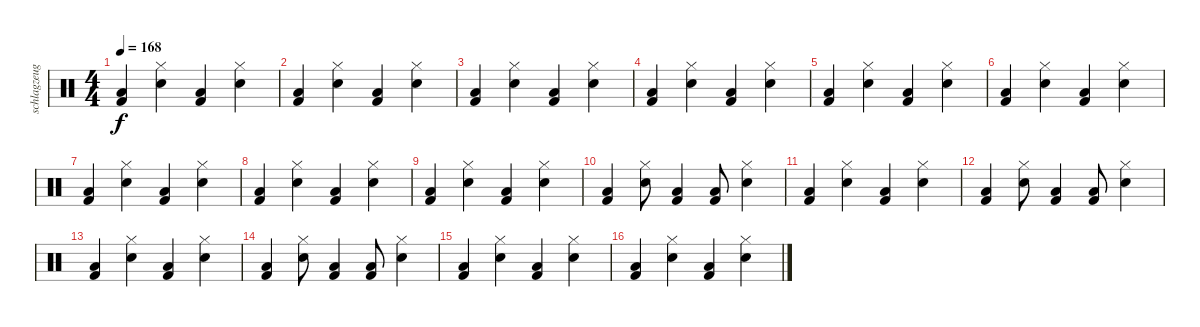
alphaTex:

\track ("schlagzeug" "schlagzeug") {instrument percussion}
\staff {score}
\articulation defaults
\ts (4 4)
\tempo 168
\clef neutral
\ks c
("Low Floor Tom (hit)" "Kick (hit) 2").4{dy f} ("Electric Snare (hit)" "Hi-Hat (closed)").4 ("Low Floor Tom (hit)" "Kick (hit) 2").4 ("Electric Snare (hit)" "Hi-Hat (closed)").4 |
("Low Floor Tom (hit)" "Kick (hit) 2").4 ("Electric Snare (hit)" "Hi-Hat (closed)").4 ("Low Floor Tom (hit)" "Kick (hit) 2").4 ("Electric Snare (hit)" "Hi-Hat (closed)").4 |
("Low Floor Tom (hit)" "Kick (hit) 2").4 ("Electric Snare (hit)" "Hi-Hat (closed)").4 ("Low Floor Tom (hit)" "Kick (hit) 2").4 ("Electric Snare (hit)" "Hi-Hat (closed)").4 |
("Low Floor Tom (hit)" "Kick (hit) 2").4 ("Electric Snare (hit)" "Hi-Hat (closed)").4 ("Low Floor Tom (hit)" "Kick (hit) 2").4 ("Electric Snare (hit)" "Hi-Hat (closed)").4 |
("Low Floor Tom (hit)" "Kick (hit) 2").4 ("Electric Snare (hit)" "Hi-Hat (closed)").4 ("Low Floor Tom (hit)" "Kick (hit) 2").4 ("Electric Snare (hit)" "Hi-Hat (closed)").4 |
("Low Floor Tom (hit)" "Kick (hit) 2").4 ("Electric Snare (hit)" "Hi-Hat (closed)").4 ("Low Floor Tom (hit)" "Kick (hit) 2").4 ("Electric Snare (hit)" "Hi-Hat (closed)").4 |
("Low Floor Tom (hit)" "Kick (hit) 2").4 ("Electric Snare (hit)" "Hi-Hat (closed)").4 ("Low Floor Tom (hit)" "Kick (hit) 2").4 ("Electric Snare (hit)" "Hi-Hat (closed)").4 |
("Low Floor Tom (hit)" "Kick (hit) 2").4 ("Electric Snare (hit)" "Hi-Hat (closed)").4 ("Low Floor Tom (hit)" "Kick (hit) 2").4 ("Electric Snare (hit)" "Hi-Hat (closed)").4 |
("Low Floor Tom (hit)" "Kick (hit) 2").4 ("Electric Snare (hit)" "Hi-Hat (closed)").4 ("Low Floor Tom (hit)" "Kick (hit) 2").4 ("Electric Snare (hit)" "Hi-Hat (closed)").4 |
("Low Floor Tom (hit)" "Kick (hit) 2").4 ("Electric Snare (hit)" "Hi-Hat (closed)").8 ("Low Floor Tom (hit)" "Kick (hit) 2").4 ("Low Floor Tom (hit)" "Kick (hit) 2").8 ("Electric Snare (hit)" "Hi-Hat (closed)").4 |
("Low Floor Tom (hit)" "Kick (hit) 2").4 ("Electric Snare (hit)" "Hi-Hat (closed)").4 ("Low Floor Tom (hit)" "Kick (hit) 2").4 ("Electric Snare (hit)" "Hi-Hat (closed)").4 |
("Low Floor Tom (hit)" "Kick (hit) 2").4 ("Electric Snare (hit)" "Hi-Hat (closed)").8 ("Low Floor Tom (hit)" "Kick (hit) 2").4 ("Low Floor Tom (hit)" "Kick (hit) 2").8 ("Electric Snare (hit)" "Hi-Hat (closed)").4 |
("Low Floor Tom (hit)" "Kick (hit) 2").4 ("Electric Snare (hit)" "Hi-Hat (closed)").4 ("Low Floor Tom (hit)" "Kick (hit) 2").4 ("Electric Snare (hit)" "Hi-Hat (closed)").4 |
("Low Floor Tom (hit)" "Kick (hit) 2").4 ("Electric Snare (hit)" "Hi-Hat (closed)").8 ("Low Floor Tom (hit)" "Kick (hit) 2").4 ("Low Floor Tom (hit)" "Kick (hit) 2").8 ("Electric Snare (hit)" "Hi-Hat (closed)").4 |
("Low Floor Tom (hit)" "Kick (hit) 2").4 ("Electric Snare (hit)" "Hi-Hat (closed)").4 ("Low Floor Tom (hit)" "Kick (hit) 2").4 ("Electric Snare (hit)" "Hi-Hat (closed)").4 |
("Low Floor Tom (hit)" "Kick (hit) 2").4 ("Electric Snare (hit)" "Hi-Hat (closed)").4 ("Low Floor Tom (hit)" "Kick (hit) 2").4 ("Electric Snare (hit)" "Hi-Hat (closed)").4
